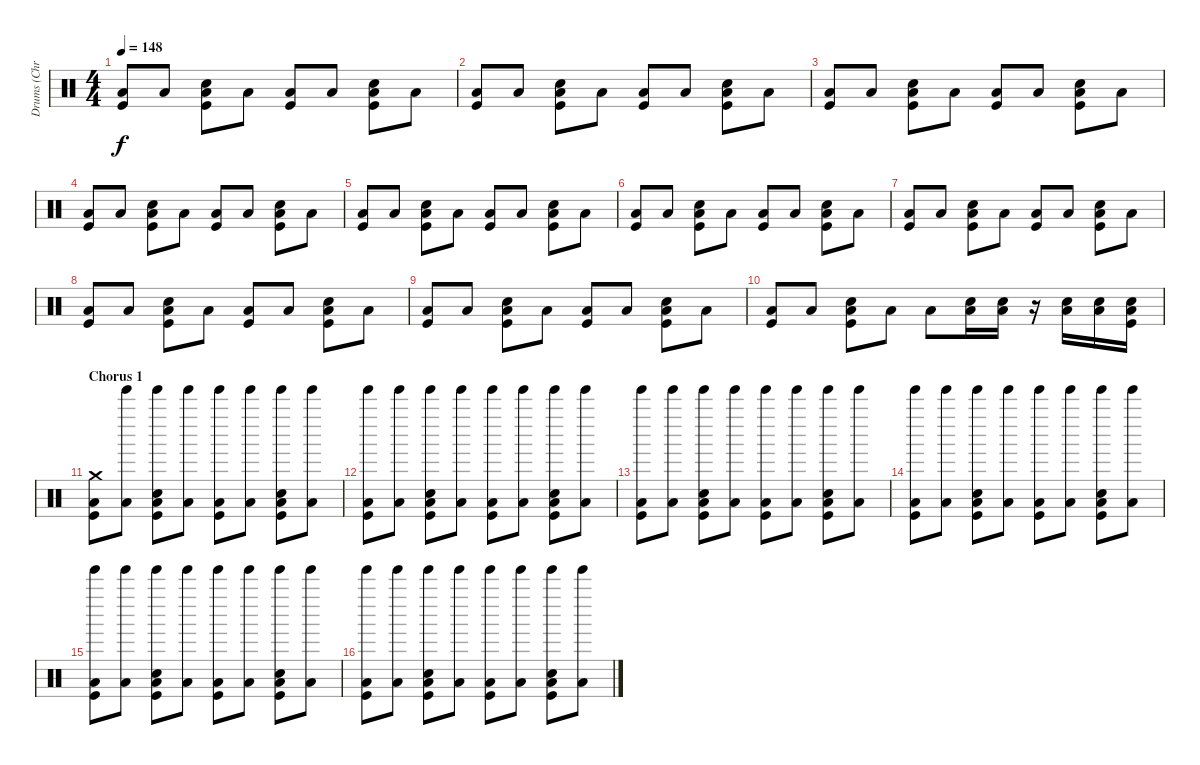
\track ("Drums (Chris Dangerous)" "Drums (Chr") {instrument percussion}
\staff {score}
\articulation defaults
\ts (4 4)
\tempo 148
\clef neutral
\ks c
("Low Tom (hit)" "Kick (hit)").8{dy f} "Low Tom (hit)".8 ("Low Tom (hit)" "Kick (hit)" "Snare (hit) 2").8 "Low Tom (hit)".8 ("Low Tom (hit)" "Kick (hit)").8 "Low Tom (hit)".8 ("Low Tom (hit)" "Kick (hit)" "Snare (hit) 2").8 "Low Tom (hit)".8 |
("Low Tom (hit)" "Kick (hit)").8 "Low Tom (hit)".8 ("Low Tom (hit)" "Kick (hit)" "Snare (hit) 2").8 "Low Tom (hit)".8 ("Low Tom (hit)" "Kick (hit)").8 "Low Tom (hit)".8 ("Low Tom (hit)" "Kick (hit)" "Snare (hit) 2").8 "Low Tom (hit)".8 |
("Low Tom (hit)" "Kick (hit)").8 "Low Tom (hit)".8 ("Low Tom (hit)" "Kick (hit)" "Snare (hit) 2").8 "Low Tom (hit)".8 ("Low Tom (hit)" "Kick (hit)").8 "Low Tom (hit)".8 ("Low Tom (hit)" "Kick (hit)" "Snare (hit) 2").8 "Low Tom (hit)".8 |
("Low Tom (hit)" "Kick (hit)").8 "Low Tom (hit)".8 ("Low Tom (hit)" "Kick (hit)" "Snare (hit) 2").8 "Low Tom (hit)".8 ("Low Tom (hit)" "Kick (hit)").8 "Low Tom (hit)".8 ("Low Tom (hit)" "Kick (hit)" "Snare (hit) 2").8 "Low Tom (hit)".8 |
("Low Tom (hit)" "Kick (hit)").8 "Low Tom (hit)".8 ("Low Tom (hit)" "Kick (hit)" "Snare (hit) 2").8 "Low Tom (hit)".8 ("Low Tom (hit)" "Kick (hit)").8 "Low Tom (hit)".8 ("Low Tom (hit)" "Kick (hit)" "Snare (hit) 2").8 "Low Tom (hit)".8 |
("Low Tom (hit)" "Kick (hit)").8 "Low Tom (hit)".8 ("Low Tom (hit)" "Kick (hit)" "Snare (hit) 2").8 "Low Tom (hit)".8 ("Low Tom (hit)" "Kick (hit)").8 "Low Tom (hit)".8 ("Low Tom (hit)" "Kick (hit)" "Snare (hit) 2").8 "Low Tom (hit)".8 |
("Low Tom (hit)" "Kick (hit)").8 "Low Tom (hit)".8 ("Low Tom (hit)" "Kick (hit)" "Snare (hit) 2").8 "Low Tom (hit)".8 ("Low Tom (hit)" "Kick (hit)").8 "Low Tom (hit)".8 ("Low Tom (hit)" "Kick (hit)" "Snare (hit) 2").8 "Low Tom (hit)".8 |
("Low Tom (hit)" "Kick (hit)").8 "Low Tom (hit)".8 ("Low Tom (hit)" "Kick (hit)" "Snare (hit) 2").8 "Low Tom (hit)".8 ("Low Tom (hit)" "Kick (hit)").8 "Low Tom (hit)".8 ("Low Tom (hit)" "Kick (hit)" "Snare (hit) 2").8 "Low Tom (hit)".8 |
("Low Tom (hit)" "Kick (hit)").8 "Low Tom (hit)".8 ("Low Tom (hit)" "Kick (hit)" "Snare (hit) 2").8 "Low Tom (hit)".8 ("Low Tom (hit)" "Kick (hit)").8 "Low Tom (hit)".8 ("Low Tom (hit)" "Kick (hit)" "Snare (hit) 2").8 "Low Tom (hit)".8 |
("Low Tom (hit)" "Kick (hit)").8 "Low Tom (hit)".8 ("Low Tom (hit)" "Kick (hit)" "Snare (hit) 2").8 "Low Tom (hit)".8 "Low Tom (hit)".8 ("Low Tom (hit)" "Snare (hit) 2").16 ("Low Tom (hit)" "Snare (hit) 2").16 r.16 ("Low Tom (hit)" "Snare (hit) 2").16 ("Low Tom (hit)" "Snare (hit) 2").16 ("Low Tom (hit)" "Kick (hit)" "Snare (hit) 2").16 |
\section ("" "Chorus 1")
("Low Tom (hit)" "Kick (hit)" "Crash medium (hit)").8 ("Low Tom (hit)" "Tinkle Bell (hit)").8 ("Low Tom (hit)" "Kick (hit)" "Snare (hit) 2" "Tinkle Bell (hit)").8 ("Low Tom (hit)" "Tinkle Bell (hit)").8 ("Low Tom (hit)" "Kick (hit)" "Tinkle Bell (hit)").8 ("Low Tom (hit)" "Tinkle Bell (hit)").8 ("Low Tom (hit)" "Kick (hit)" "Snare (hit) 2" "Tinkle Bell (hit)").8 ("Low Tom (hit)" "Tinkle Bell (hit)").8 |
("Low Tom (hit)" "Kick (hit)" "Tinkle Bell (hit)").8 ("Low Tom (hit)" "Tinkle Bell (hit)").8 ("Low Tom (hit)" "Kick (hit)" "Snare (hit) 2" "Tinkle Bell (hit)").8 ("Low Tom (hit)" "Tinkle Bell (hit)").8 ("Low Tom (hit)" "Kick (hit)" "Tinkle Bell (hit)").8 ("Low Tom (hit)" "Tinkle Bell (hit)").8 ("Low Tom (hit)" "Kick (hit)" "Snare (hit) 2" "Tinkle Bell (hit)").8 ("Low Tom (hit)" "Tinkle Bell (hit)").8 |
("Low Tom (hit)" "Kick (hit)" "Tinkle Bell (hit)").8 ("Low Tom (hit)" "Tinkle Bell (hit)").8 ("Low Tom (hit)" "Kick (hit)" "Snare (hit) 2" "Tinkle Bell (hit)").8 ("Low Tom (hit)" "Tinkle Bell (hit)").8 ("Low Tom (hit)" "Kick (hit)" "Tinkle Bell (hit)").8 ("Low Tom (hit)" "Tinkle Bell (hit)").8 ("Low Tom (hit)" "Kick (hit)" "Snare (hit) 2" "Tinkle Bell (hit)").8 ("Low Tom (hit)" "Tinkle Bell (hit)").8 |
("Low Tom (hit)" "Kick (hit)" "Tinkle Bell (hit)").8 ("Low Tom (hit)" "Tinkle Bell (hit)").8 ("Low Tom (hit)" "Kick (hit)" "Snare (hit) 2" "Tinkle Bell (hit)").8 ("Low Tom (hit)" "Tinkle Bell (hit)").8 ("Low Tom (hit)" "Kick (hit)" "Tinkle Bell (hit)").8 ("Low Tom (hit)" "Tinkle Bell (hit)").8 ("Low Tom (hit)" "Kick (hit)" "Snare (hit) 2" "Tinkle Bell (hit)").8 ("Low Tom (hit)" "Tinkle Bell (hit)").8 |
("Low Tom (hit)" "Kick (hit)" "Tinkle Bell (hit)").8 ("Low Tom (hit)" "Tinkle Bell (hit)").8 ("Low Tom (hit)" "Kick (hit)" "Snare (hit) 2" "Tinkle Bell (hit)").8 ("Low Tom (hit)" "Tinkle Bell (hit)").8 ("Low Tom (hit)" "Kick (hit)" "Tinkle Bell (hit)").8 ("Low Tom (hit)" "Tinkle Bell (hit)").8 ("Low Tom (hit)" "Kick (hit)" "Snare (hit) 2" "Tinkle Bell (hit)").8 ("Low Tom (hit)" "Tinkle Bell (hit)").8 |
("Low Tom (hit)" "Kick (hit)" "Tinkle Bell (hit)").8 ("Low Tom (hit)" "Tinkle Bell (hit)").8 ("Low Tom (hit)" "Kick (hit)" "Snare (hit) 2" "Tinkle Bell (hit)").8 ("Low Tom (hit)" "Tinkle Bell (hit)").8 ("Low Tom (hit)" "Kick (hit)" "Tinkle Bell (hit)").8 ("Low Tom (hit)" "Tinkle Bell (hit)").8 ("Low Tom (hit)" "Kick (hit)" "Snare (hit) 2" "Tinkle Bell (hit)").8 ("Low Tom (hit)" "Tinkle Bell (hit)").8
